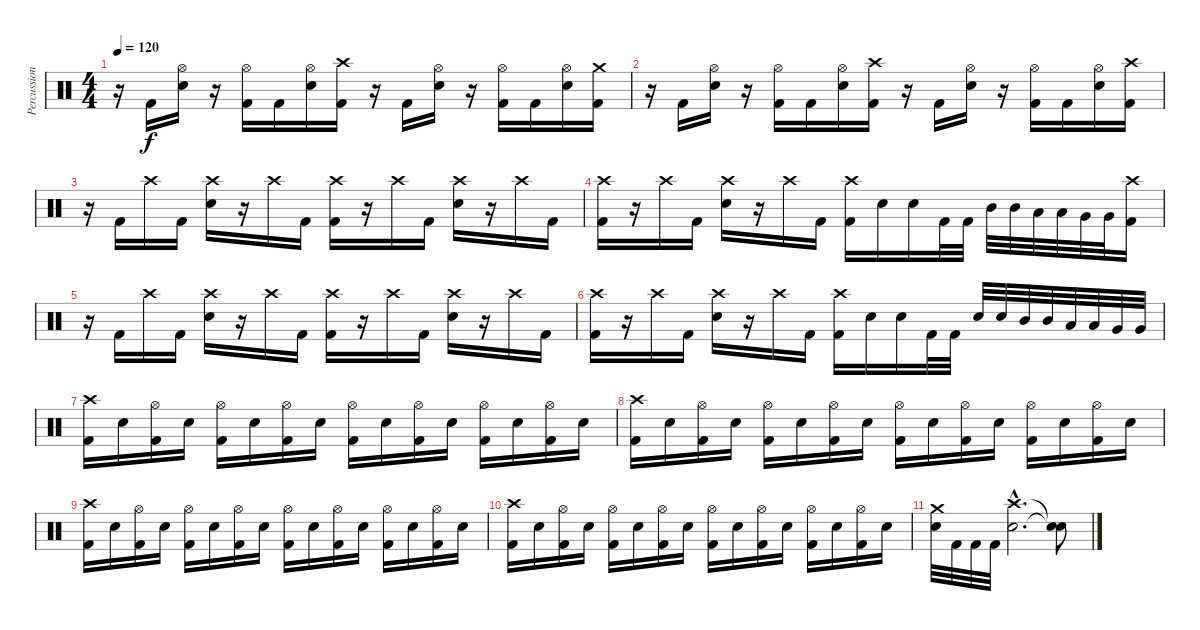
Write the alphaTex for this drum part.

\track ("Percussion" "Percussion") {instrument percussion}
\staff {score}
\articulation defaults
\ts (4 4)
\tempo 120
\clef neutral
\ks c
r.16{dy f} "Kick (hit) 2".16 ("Hi-Hat (open)" "Electric Snare (hit)").16 r.16 ("Hi-Hat (open)" "Kick (hit) 2").16 "Kick (hit) 2".16 ("Hi-Hat (open)" "Electric Snare (hit)").16 ("Crash high (hit)" "Kick (hit) 2").16 r.16 "Kick (hit) 2".16 ("Hi-Hat (open)" "Electric Snare (hit)").16 r.16 ("Hi-Hat (open)" "Kick (hit) 2").16 "Kick (hit) 2".16 ("Hi-Hat (open)" "Electric Snare (hit)").16 ("Crash medium (hit)" "Kick (hit) 2").16 |
r.16 "Kick (hit) 2".16 ("Hi-Hat (open)" "Electric Snare (hit)").16 r.16 ("Hi-Hat (open)" "Kick (hit) 2").16 "Kick (hit) 2".16 ("Hi-Hat (open)" "Electric Snare (hit)").16 ("Crash high (hit)" "Kick (hit) 2").16 r.16 "Kick (hit) 2".16 ("Hi-Hat (open)" "Electric Snare (hit)").16 r.16 ("Hi-Hat (open)" "Kick (hit) 2").16 "Kick (hit) 2".16 ("Hi-Hat (open)" "Electric Snare (hit)").16 ("Crash high (hit)" "Kick (hit) 2").16 |
r.16 "Kick (hit) 2".16 "Crash high (hit)".16 "Kick (hit) 2".16 ("Crash high (hit)" "Electric Snare (hit)").16 r.16 "Crash high (hit)".16 "Kick (hit) 2".16 ("Crash high (hit)" "Kick (hit) 2").16 r.16 "Crash high (hit)".16 "Kick (hit) 2".16 ("Crash high (hit)" "Electric Snare (hit)").16 r.16 "Crash high (hit)".16 "Kick (hit) 2".16 |
("Crash high (hit)" "Kick (hit) 2").16 r.16 "Crash high (hit)".16 "Kick (hit) 2".16 ("Crash high (hit)" "Electric Snare (hit)").16 r.16 "Crash high (hit)".16 "Kick (hit) 2".16 ("Crash high (hit)" "Kick (hit) 2").16 "Electric Snare (hit)".16 "Electric Snare (hit)".16 "Kick (hit) 2".32 "Kick (hit) 2".32 "Mid Tom (hit)".32 "Mid Tom (hit)".32 "Low Tom (hit)".32 "Low Tom (hit)".32 "Very Low Tom (hit)".32 "Very Low Tom (hit)".32 ("Crash high (hit)" "Kick (hit) 2").16 |
r.16 "Kick (hit) 2".16 "Crash high (hit)".16 "Kick (hit) 2".16 ("Crash high (hit)" "Electric Snare (hit)").16 r.16 "Crash high (hit)".16 "Kick (hit) 2".16 ("Crash high (hit)" "Kick (hit) 2").16 r.16 "Crash high (hit)".16 "Kick (hit) 2".16 ("Crash high (hit)" "Electric Snare (hit)").16 r.16 "Crash high (hit)".16 "Kick (hit) 2".16 |
("Crash high (hit)" "Kick (hit) 2").16 r.16 "Crash high (hit)".16 "Kick (hit) 2".16 ("Crash high (hit)" "Electric Snare (hit)").16 r.16 "Crash high (hit)".16 "Kick (hit) 2".16 ("Crash high (hit)" "Kick (hit) 2").16 "Electric Snare (hit)".16 "Electric Snare (hit)".16 "Kick (hit) 2".32 "Kick (hit) 2".32 "Electric Snare (hit)".32 "Electric Snare (hit)".32 "Mid Tom (hit)".32 "Mid Tom (hit)".32 "Low Tom (hit)".32 "Low Tom (hit)".32 "Very Low Tom (hit)".32 "Very Low Tom (hit)".32 |
("Crash high (hit)" "Kick (hit) 2").16 "Electric Snare (hit)".16 ("Hi-Hat (open)" "Kick (hit) 2").16 "Electric Snare (hit)".16 ("Hi-Hat (open)" "Kick (hit) 2").16 "Electric Snare (hit)".16 ("Hi-Hat (open)" "Kick (hit) 2").16 "Electric Snare (hit)".16 ("Hi-Hat (open)" "Kick (hit) 2").16 "Electric Snare (hit)".16 ("Hi-Hat (open)" "Kick (hit) 2").16 "Electric Snare (hit)".16 ("Hi-Hat (open)" "Kick (hit) 2").16 "Electric Snare (hit)".16 ("Hi-Hat (open)" "Kick (hit) 2").16 "Electric Snare (hit)".16 |
("Crash high (hit)" "Kick (hit) 2").16 "Electric Snare (hit)".16 ("Hi-Hat (open)" "Kick (hit) 2").16 "Electric Snare (hit)".16 ("Hi-Hat (open)" "Kick (hit) 2").16 "Electric Snare (hit)".16 ("Hi-Hat (open)" "Kick (hit) 2").16 "Electric Snare (hit)".16 ("Hi-Hat (open)" "Kick (hit) 2").16 "Electric Snare (hit)".16 ("Hi-Hat (open)" "Kick (hit) 2").16 "Electric Snare (hit)".16 ("Hi-Hat (open)" "Kick (hit) 2").16 "Electric Snare (hit)".16 ("Hi-Hat (open)" "Kick (hit) 2").16 "Electric Snare (hit)".16 |
("Crash high (hit)" "Kick (hit) 2").16 "Electric Snare (hit)".16 ("Hi-Hat (open)" "Kick (hit) 2").16 "Electric Snare (hit)".16 ("Hi-Hat (open)" "Kick (hit) 2").16 "Electric Snare (hit)".16 ("Hi-Hat (open)" "Kick (hit) 2").16 "Electric Snare (hit)".16 ("Hi-Hat (open)" "Kick (hit) 2").16 "Electric Snare (hit)".16 ("Hi-Hat (open)" "Kick (hit) 2").16 "Electric Snare (hit)".16 ("Hi-Hat (open)" "Kick (hit) 2").16 "Electric Snare (hit)".16 ("Hi-Hat (open)" "Kick (hit) 2").16 "Electric Snare (hit)".16 |
("Crash high (hit)" "Kick (hit) 2").16 "Electric Snare (hit)".16 ("Hi-Hat (open)" "Kick (hit) 2").16 "Electric Snare (hit)".16 ("Hi-Hat (open)" "Kick (hit) 2").16 "Electric Snare (hit)".16 ("Hi-Hat (open)" "Kick (hit) 2").16 "Electric Snare (hit)".16 ("Hi-Hat (open)" "Kick (hit) 2").16 "Electric Snare (hit)".16 ("Hi-Hat (open)" "Kick (hit) 2").16 "Electric Snare (hit)".16 ("Hi-Hat (open)" "Kick (hit) 2").16 "Electric Snare (hit)".16 ("Hi-Hat (open)" "Kick (hit) 2").16 "Electric Snare (hit)".16 |
("Crash medium (hit)" "Electric Snare (hit)").32 "Kick (hit) 2".32 "Kick (hit) 2".32 "Kick (hit) 2".32 ("Crash high (hit)"{hac} "Electric Snare (hit)"{hac}).2{d} ("Snare (hit)"{t} "Snare (hit)"{t}).8
